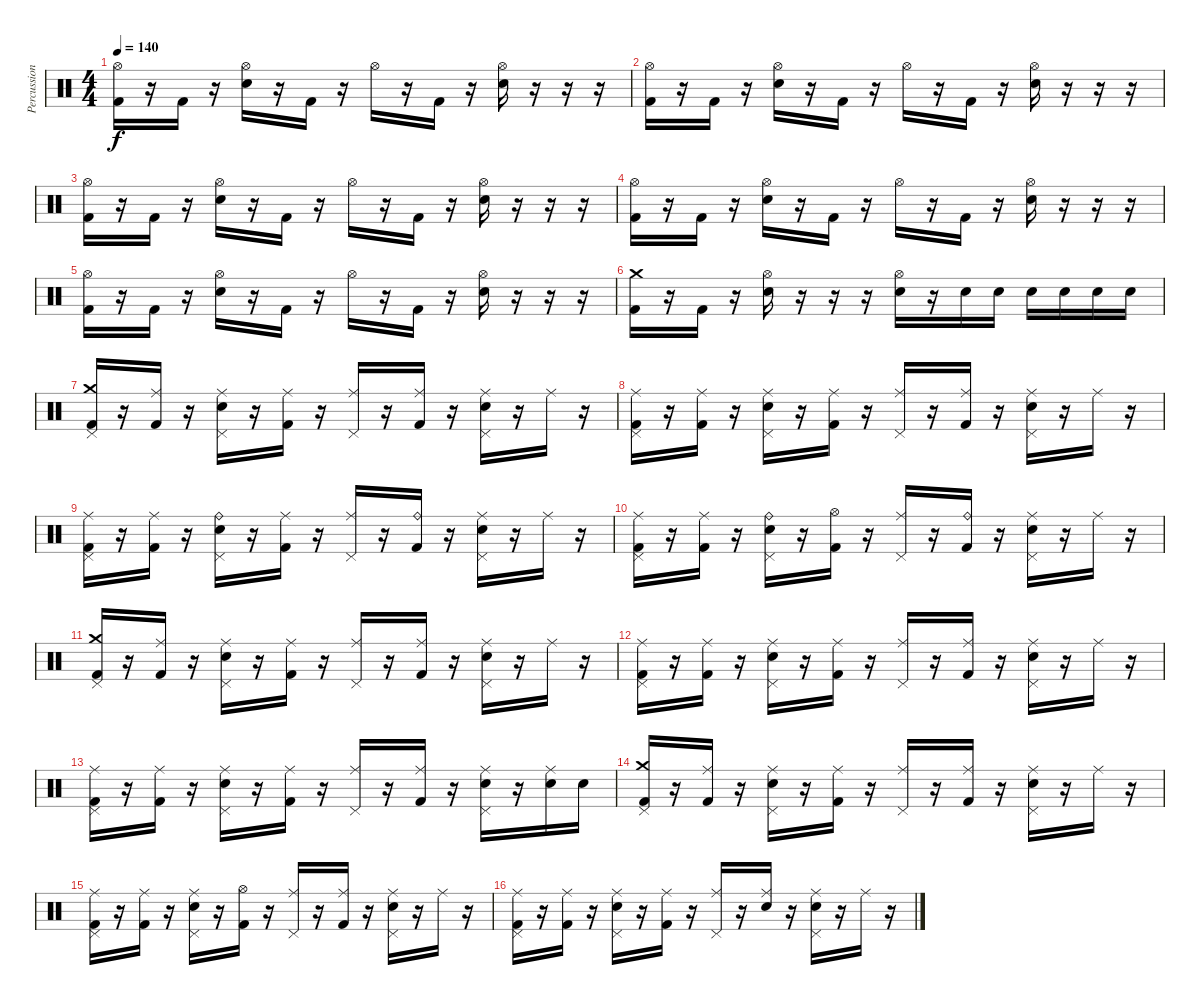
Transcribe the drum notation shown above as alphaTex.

\track ("Percussion" "Percussion") {instrument percussion}
\staff {score}
\articulation defaults
\ts (4 4)
\tempo 140
\clef neutral
\ks c
("Hi-Hat (open)" "Kick (hit) 2").16{dy f} r.16 "Kick (hit) 2".16 r.16 ("Hi-Hat (open)" "Snare (hit) 2").16 r.16 "Kick (hit) 2".16 r.16 "Hi-Hat (open)".16 r.16 "Kick (hit) 2".16 r.16 ("Hi-Hat (open)" "Snare (hit) 2").16 r.16 r.16 r.16 |
("Hi-Hat (open)" "Kick (hit) 2").16 r.16 "Kick (hit) 2".16 r.16 ("Hi-Hat (open)" "Snare (hit) 2").16 r.16 "Kick (hit) 2".16 r.16 "Hi-Hat (open)".16 r.16 "Kick (hit) 2".16 r.16 ("Hi-Hat (open)" "Snare (hit) 2").16 r.16 r.16 r.16 |
("Hi-Hat (open)" "Kick (hit) 2").16 r.16 "Kick (hit) 2".16 r.16 ("Hi-Hat (open)" "Snare (hit) 2").16 r.16 "Kick (hit) 2".16 r.16 "Hi-Hat (open)".16 r.16 "Kick (hit) 2".16 r.16 ("Hi-Hat (open)" "Snare (hit) 2").16 r.16 r.16 r.16 |
("Hi-Hat (open)" "Kick (hit) 2").16 r.16 "Kick (hit) 2".16 r.16 ("Hi-Hat (open)" "Snare (hit) 2").16 r.16 "Kick (hit) 2".16 r.16 "Hi-Hat (open)".16 r.16 "Kick (hit) 2".16 r.16 ("Hi-Hat (open)" "Snare (hit) 2").16 r.16 r.16 r.16 |
("Hi-Hat (open)" "Kick (hit) 2").16 r.16 "Kick (hit) 2".16 r.16 ("Hi-Hat (open)" "Snare (hit) 2").16 r.16 "Kick (hit) 2".16 r.16 "Hi-Hat (open)".16 r.16 "Kick (hit) 2".16 r.16 ("Hi-Hat (open)" "Snare (hit) 2").16 r.16 r.16 r.16 |
("Crash medium (hit)" "Kick (hit) 2").16 r.16 "Kick (hit) 2".16 r.16 ("Hi-Hat (open)" "Snare (hit) 2").16 r.16 r.16 r.16 ("Hi-Hat (open)" "Snare (hit) 2").16 r.16 "Snare (hit) 2".16 "Snare (hit) 2".16 "Snare (hit) 2".16 "Snare (hit) 2".16 "Snare (hit) 2".16 "Snare (hit) 2".16 |
("Crash medium (hit)" "Pedal Hi-Hat (hit)" "Kick (hit) 2").16 r.16 ("Ride (middle)" "Kick (hit) 2").16 r.16 ("Ride (middle)" "Pedal Hi-Hat (hit)" "Snare (hit) 2").16 r.16 ("Ride (middle)" "Kick (hit) 2").16 r.16 ("Ride (middle)" "Pedal Hi-Hat (hit)").16 r.16 ("Ride (middle)" "Kick (hit) 2").16 r.16 ("Ride (middle)" "Pedal Hi-Hat (hit)" "Snare (hit) 2").16 r.16 "Ride (middle)".16 r.16 |
("Ride (middle)" "Pedal Hi-Hat (hit)" "Kick (hit) 2").16 r.16 ("Ride (middle)" "Kick (hit) 2").16 r.16 ("Ride (middle)" "Pedal Hi-Hat (hit)" "Snare (hit) 2").16 r.16 ("Ride (middle)" "Kick (hit) 2").16 r.16 ("Ride (middle)" "Pedal Hi-Hat (hit)").16 r.16 ("Ride (middle)" "Kick (hit) 2").16 r.16 ("Ride (middle)" "Pedal Hi-Hat (hit)" "Snare (hit) 2").16 r.16 "Ride (middle)".16 r.16 |
("Ride (middle)" "Pedal Hi-Hat (hit)" "Kick (hit) 2").16 r.16 ("Ride (middle)" "Kick (hit) 2").16 r.16 ("Ride (bell)" "Pedal Hi-Hat (hit)" "Snare (hit) 2").16 r.16 ("Ride (middle)" "Kick (hit) 2").16 r.16 ("Ride (middle)" "Pedal Hi-Hat (hit)").16 r.16 ("Ride (bell)" "Kick (hit) 2").16 r.16 ("Ride (middle)" "Pedal Hi-Hat (hit)" "Snare (hit) 2").16 r.16 "Ride (middle)".16 r.16 |
("Ride (middle)" "Pedal Hi-Hat (hit)" "Kick (hit) 2").16 r.16 ("Ride (middle)" "Kick (hit) 2").16 r.16 ("Ride (bell)" "Pedal Hi-Hat (hit)" "Snare (hit) 2").16 r.16 ("Hi-Hat (open)" "Kick (hit) 2").16 r.16 ("Ride (middle)" "Pedal Hi-Hat (hit)").16 r.16 ("Ride (bell)" "Kick (hit) 2").16 r.16 ("Ride (middle)" "Pedal Hi-Hat (hit)" "Snare (hit) 2").16 r.16 "Ride (middle)".16 r.16 |
("Crash medium (hit)" "Pedal Hi-Hat (hit)" "Kick (hit) 2").16 r.16 ("Ride (middle)" "Kick (hit) 2").16 r.16 ("Ride (middle)" "Pedal Hi-Hat (hit)" "Snare (hit) 2").16 r.16 ("Ride (middle)" "Kick (hit) 2").16 r.16 ("Ride (middle)" "Pedal Hi-Hat (hit)").16 r.16 ("Ride (middle)" "Kick (hit) 2").16 r.16 ("Ride (middle)" "Pedal Hi-Hat (hit)" "Snare (hit) 2").16 r.16 "Ride (middle)".16 r.16 |
("Ride (middle)" "Pedal Hi-Hat (hit)" "Kick (hit) 2").16 r.16 ("Ride (middle)" "Kick (hit) 2").16 r.16 ("Ride (middle)" "Pedal Hi-Hat (hit)" "Snare (hit) 2").16 r.16 ("Ride (middle)" "Kick (hit) 2").16 r.16 ("Ride (middle)" "Pedal Hi-Hat (hit)").16 r.16 ("Ride (middle)" "Kick (hit) 2").16 r.16 ("Ride (middle)" "Pedal Hi-Hat (hit)" "Snare (hit) 2").16 r.16 "Ride (middle)".16 r.16 |
("Ride (middle)" "Pedal Hi-Hat (hit)" "Kick (hit) 2").16 r.16 ("Ride (middle)" "Kick (hit) 2").16 r.16 ("Ride (middle)" "Pedal Hi-Hat (hit)" "Snare (hit) 2").16 r.16 ("Ride (middle)" "Kick (hit) 2").16 r.16 ("Ride (middle)" "Pedal Hi-Hat (hit)").16 r.16 ("Ride (middle)" "Kick (hit) 2").16 r.16 ("Ride (middle)" "Pedal Hi-Hat (hit)" "Snare (hit) 2").16 r.16 ("Ride (middle)" "Snare (hit) 2").16 "Snare (hit) 2".16 |
("Crash medium (hit)" "Pedal Hi-Hat (hit)" "Kick (hit) 2").16 r.16 ("Ride (middle)" "Kick (hit) 2").16 r.16 ("Ride (middle)" "Pedal Hi-Hat (hit)" "Snare (hit) 2").16 r.16 ("Ride (middle)" "Kick (hit) 2").16 r.16 ("Ride (middle)" "Pedal Hi-Hat (hit)").16 r.16 ("Ride (middle)" "Kick (hit) 2").16 r.16 ("Ride (middle)" "Pedal Hi-Hat (hit)" "Snare (hit) 2").16 r.16 "Ride (middle)".16 r.16 |
("Ride (middle)" "Pedal Hi-Hat (hit)" "Kick (hit) 2").16 r.16 ("Ride (middle)" "Kick (hit) 2").16 r.16 ("Ride (middle)" "Pedal Hi-Hat (hit)" "Snare (hit) 2").16 r.16 ("Hi-Hat (open)" "Kick (hit) 2").16 r.16 ("Ride (middle)" "Pedal Hi-Hat (hit)").16 r.16 ("Ride (middle)" "Kick (hit) 2").16 r.16 ("Ride (middle)" "Pedal Hi-Hat (hit)" "Snare (hit) 2").16 r.16 "Ride (middle)".16 r.16 |
("Ride (middle)" "Pedal Hi-Hat (hit)" "Kick (hit) 2").16 r.16 ("Ride (middle)" "Kick (hit) 2").16 r.16 ("Ride (middle)" "Pedal Hi-Hat (hit)" "Snare (hit) 2").16 r.16 ("Ride (middle)" "Kick (hit) 2").16 r.16 ("Ride (middle)" "Pedal Hi-Hat (hit)").16 r.16 ("Ride (middle)" "Snare (hit) 2").16 r.16 ("Ride (middle)" "Pedal Hi-Hat (hit)" "Snare (hit) 2").16 r.16 "Ride (middle)".16 r.16
